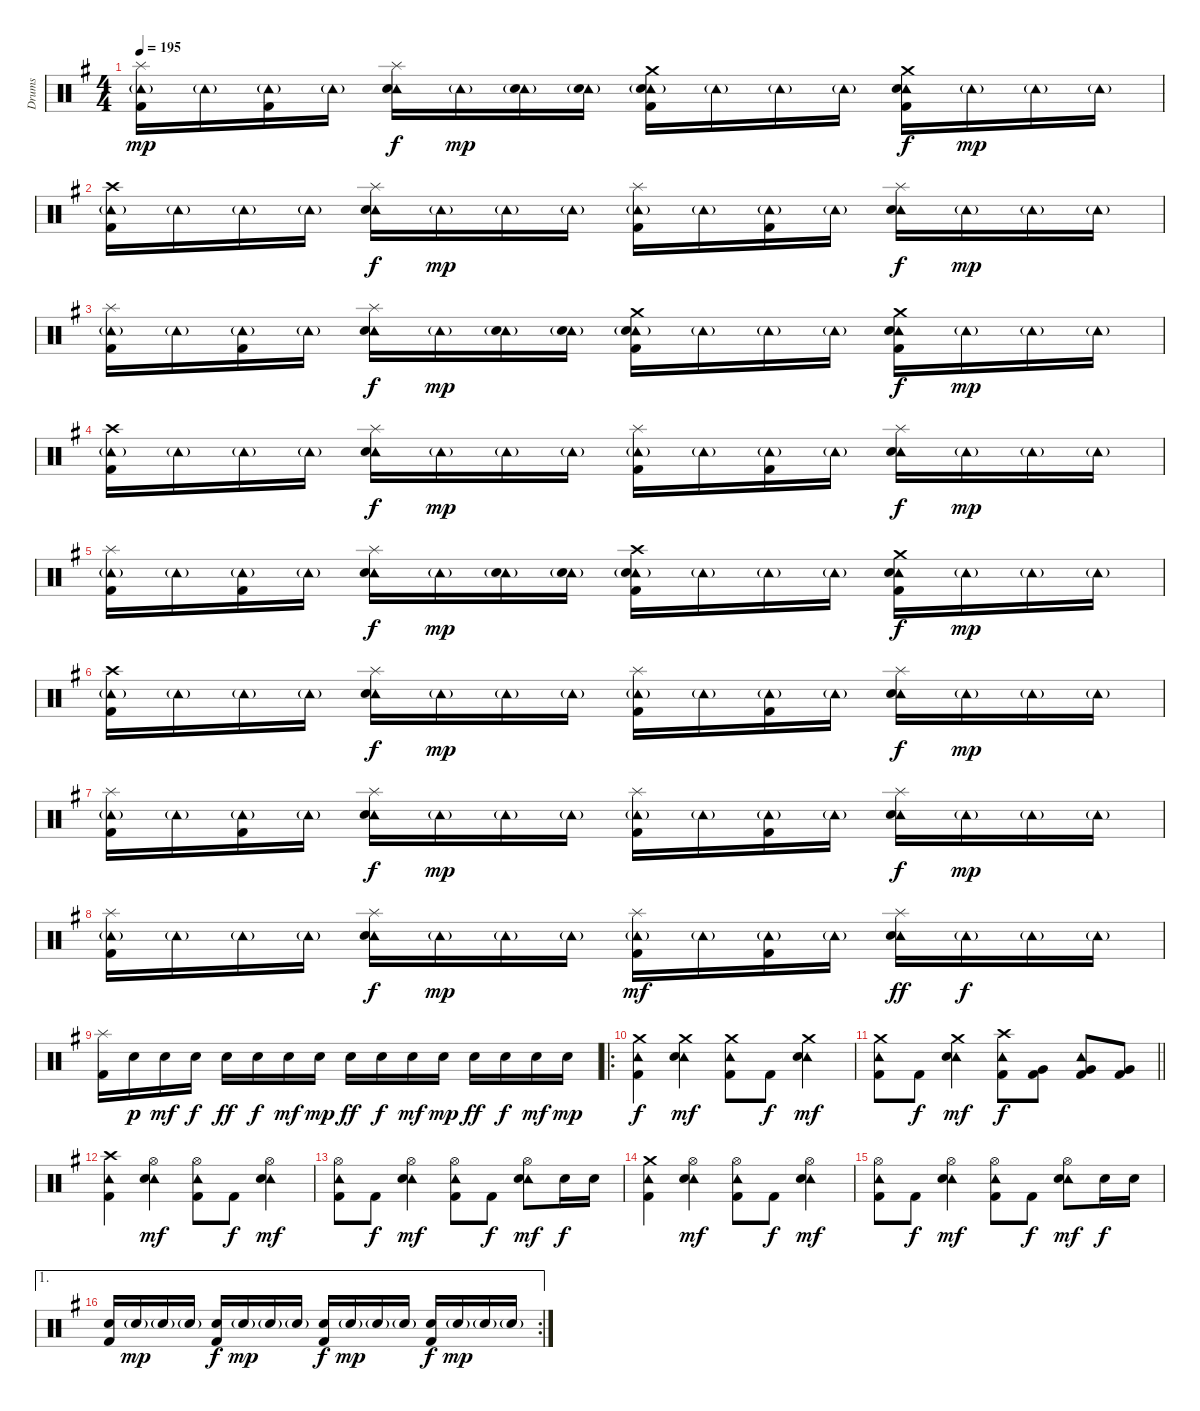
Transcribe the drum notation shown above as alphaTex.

\track ("Drums" "Drums") {instrument percussion}
\staff {score}
\articulation defaults
\ts (4 4)
\tempo 195
\clef neutral
\ks g
("Splash (hit)" "Tambourine (hit)"{g} "Kick (hit) 2").16{dy mp} "Tambourine (hit)"{g}.16 ("Tambourine (hit)"{g} "Kick (hit) 2").16 "Tambourine (hit)"{g}.16 ("Splash (hit)" "Tambourine (hit)" "Electric Snare (hit)").16{dy f} "Tambourine (hit)"{g}.16{dy mp} ("Tambourine (hit)"{g} "Electric Snare (hit)").16 ("Tambourine (hit)"{g} "Electric Snare (hit)").16 ("Crash medium (hit)" "Tambourine (hit)"{g} "Electric Snare (hit)" "Kick (hit) 2").16 "Tambourine (hit)"{g}.16 "Tambourine (hit)"{g}.16 "Tambourine (hit)"{g}.16 ("Crash medium (hit)" "Tambourine (hit)" "Electric Snare (hit)" "Kick (hit) 2").16{dy f} "Tambourine (hit)"{g}.16{dy mp} "Tambourine (hit)"{g}.16 "Tambourine (hit)"{g}.16 |
("Crash high (hit)" "Tambourine (hit)"{g} "Kick (hit) 2").16 "Tambourine (hit)"{g}.16 "Tambourine (hit)"{g}.16 "Tambourine (hit)"{g}.16 ("Splash (hit)" "Tambourine (hit)" "Electric Snare (hit)").16{dy f} "Tambourine (hit)"{g}.16{dy mp} "Tambourine (hit)"{g}.16 "Tambourine (hit)"{g}.16 ("Splash (hit)" "Tambourine (hit)"{g} "Kick (hit) 2").16 "Tambourine (hit)"{g}.16 ("Tambourine (hit)"{g} "Kick (hit) 2").16 "Tambourine (hit)"{g}.16 ("Splash (hit)" "Tambourine (hit)" "Electric Snare (hit)").16{dy f} "Tambourine (hit)"{g}.16{dy mp} "Tambourine (hit)"{g}.16 "Tambourine (hit)"{g}.16 |
("Splash (hit)" "Tambourine (hit)"{g} "Kick (hit) 2").16 "Tambourine (hit)"{g}.16 ("Tambourine (hit)"{g} "Kick (hit) 2").16 "Tambourine (hit)"{g}.16 ("Splash (hit)" "Tambourine (hit)" "Electric Snare (hit)").16{dy f} "Tambourine (hit)"{g}.16{dy mp} ("Tambourine (hit)"{g} "Electric Snare (hit)").16 ("Tambourine (hit)"{g} "Electric Snare (hit)").16 ("Crash medium (hit)" "Tambourine (hit)"{g} "Electric Snare (hit)" "Kick (hit) 2").16 "Tambourine (hit)"{g}.16 "Tambourine (hit)"{g}.16 "Tambourine (hit)"{g}.16 ("Crash medium (hit)" "Tambourine (hit)" "Electric Snare (hit)" "Kick (hit) 2").16{dy f} "Tambourine (hit)"{g}.16{dy mp} "Tambourine (hit)"{g}.16 "Tambourine (hit)"{g}.16 |
("Crash high (hit)" "Tambourine (hit)"{g} "Kick (hit) 2").16 "Tambourine (hit)"{g}.16 "Tambourine (hit)"{g}.16 "Tambourine (hit)"{g}.16 ("Splash (hit)" "Tambourine (hit)" "Electric Snare (hit)").16{dy f} "Tambourine (hit)"{g}.16{dy mp} "Tambourine (hit)"{g}.16 "Tambourine (hit)"{g}.16 ("Splash (hit)" "Tambourine (hit)"{g} "Kick (hit) 2").16 "Tambourine (hit)"{g}.16 ("Tambourine (hit)"{g} "Kick (hit) 2").16 "Tambourine (hit)"{g}.16 ("Splash (hit)" "Tambourine (hit)" "Electric Snare (hit)").16{dy f} "Tambourine (hit)"{g}.16{dy mp} "Tambourine (hit)"{g}.16 "Tambourine (hit)"{g}.16 |
("Splash (hit)" "Tambourine (hit)"{g} "Kick (hit) 2").16 "Tambourine (hit)"{g}.16 ("Tambourine (hit)"{g} "Kick (hit) 2").16 "Tambourine (hit)"{g}.16 ("Splash (hit)" "Tambourine (hit)" "Electric Snare (hit)").16{dy f} "Tambourine (hit)"{g}.16{dy mp} ("Tambourine (hit)"{g} "Electric Snare (hit)").16 ("Tambourine (hit)"{g} "Electric Snare (hit)").16 ("Crash high (hit)" "Tambourine (hit)"{g} "Electric Snare (hit)" "Kick (hit) 2").16 "Tambourine (hit)"{g}.16 "Tambourine (hit)"{g}.16 "Tambourine (hit)"{g}.16 ("Crash medium (hit)" "Tambourine (hit)" "Electric Snare (hit)" "Kick (hit) 2").16{dy f} "Tambourine (hit)"{g}.16{dy mp} "Tambourine (hit)"{g}.16 "Tambourine (hit)"{g}.16 |
("Crash high (hit)" "Tambourine (hit)"{g} "Kick (hit) 2").16 "Tambourine (hit)"{g}.16 "Tambourine (hit)"{g}.16 "Tambourine (hit)"{g}.16 ("Splash (hit)" "Tambourine (hit)" "Electric Snare (hit)").16{dy f} "Tambourine (hit)"{g}.16{dy mp} "Tambourine (hit)"{g}.16 "Tambourine (hit)"{g}.16 ("Splash (hit)" "Tambourine (hit)"{g} "Kick (hit) 2").16 "Tambourine (hit)"{g}.16 ("Tambourine (hit)"{g} "Kick (hit) 2").16 "Tambourine (hit)"{g}.16 ("Splash (hit)" "Tambourine (hit)" "Electric Snare (hit)").16{dy f} "Tambourine (hit)"{g}.16{dy mp} "Tambourine (hit)"{g}.16 "Tambourine (hit)"{g}.16 |
("Splash (hit)" "Tambourine (hit)"{g} "Kick (hit) 2").16 "Tambourine (hit)"{g}.16 ("Tambourine (hit)"{g} "Kick (hit) 2").16 "Tambourine (hit)"{g}.16 ("Splash (hit)" "Tambourine (hit)" "Electric Snare (hit)").16{dy f} "Tambourine (hit)"{g}.16{dy mp} "Tambourine (hit)"{g}.16 "Tambourine (hit)"{g}.16 ("Splash (hit)" "Tambourine (hit)"{g} "Kick (hit) 2").16 "Tambourine (hit)"{g}.16 ("Tambourine (hit)"{g} "Kick (hit) 2").16 "Tambourine (hit)"{g}.16 ("Splash (hit)" "Tambourine (hit)" "Electric Snare (hit)").16{dy f} "Tambourine (hit)"{g}.16{dy mp} "Tambourine (hit)"{g}.16 "Tambourine (hit)"{g}.16 |
("Splash (hit)" "Tambourine (hit)"{g} "Kick (hit) 2").16 "Tambourine (hit)"{g}.16 "Tambourine (hit)"{g}.16 "Tambourine (hit)"{g}.16 ("Splash (hit)" "Tambourine (hit)" "Electric Snare (hit)").16{dy f} "Tambourine (hit)"{g}.16{dy mp} "Tambourine (hit)"{g}.16 "Tambourine (hit)"{g}.16 ("Splash (hit)" "Tambourine (hit)"{g} "Kick (hit) 2").16{dy mf} "Tambourine (hit)"{g}.16 ("Tambourine (hit)"{g} "Kick (hit) 2").16 "Tambourine (hit)"{g}.16 ("Splash (hit)" "Tambourine (hit)" "Electric Snare (hit)").16{dy ff} "Tambourine (hit)"{g}.16{dy f} "Tambourine (hit)"{g}.16 "Tambourine (hit)"{g}.16 |
("Splash (hit)" "Kick (hit) 2").16 "Electric Snare (hit)".16{dy p} "Electric Snare (hit)".16{dy mf} "Electric Snare (hit)".16{dy f} "Electric Snare (hit)".16{dy ff} "Electric Snare (hit)".16{dy f} "Electric Snare (hit)".16{dy mf} "Electric Snare (hit)".16{dy mp} "Electric Snare (hit)".16{dy ff} "Electric Snare (hit)".16{dy f} "Electric Snare (hit)".16{dy mf} "Electric Snare (hit)".16{dy mp} "Electric Snare (hit)".16{dy ff} "Electric Snare (hit)".16{dy f} "Electric Snare (hit)".16{dy mf} "Electric Snare (hit)".16{dy mp} |
\ro
("Crash medium (hit)" "Tambourine (hit)" "Kick (hit) 2").4{dy f} ("Crash medium (hit)" "Tambourine (hit)" "Electric Snare (hit)").4{dy mf} ("Crash medium (hit)" "Tambourine (hit)" "Kick (hit) 2").8 "Kick (hit) 2".8{dy f} ("Crash medium (hit)" "Tambourine (hit)" "Electric Snare (hit)").4{dy mf} |
\barLineRight lightlight
("Crash medium (hit)" "Tambourine (hit)" "Kick (hit) 2").8 "Kick (hit) 2".8{dy f} ("Crash medium (hit)" "Tambourine (hit)" "Electric Snare (hit)").4{dy mf} ("Crash high (hit)" "Tambourine (hit)" "Kick (hit) 2").8{dy f} ("Very Low Tom (hit)" "Kick (hit) 2").8 ("Tambourine (hit)" "Very Low Tom (hit)" "Kick (hit) 2").8 ("Very Low Tom (hit)" "Kick (hit) 2").8 |
("Crash high (hit)" "Tambourine (hit)" "Kick (hit) 2").4 ("Hi-Hat (open)" "Tambourine (hit)" "Electric Snare (hit)").4{dy mf} ("Hi-Hat (open)" "Tambourine (hit)" "Kick (hit) 2").8 "Kick (hit) 2".8{dy f} ("Hi-Hat (open)" "Tambourine (hit)" "Electric Snare (hit)").4{dy mf} |
("Hi-Hat (open)" "Tambourine (hit)" "Kick (hit) 2").8 "Kick (hit) 2".8{dy f} ("Hi-Hat (open)" "Tambourine (hit)" "Electric Snare (hit)").4{dy mf} ("Hi-Hat (open)" "Tambourine (hit)" "Kick (hit) 2").8 "Kick (hit) 2".8{dy f} ("Hi-Hat (open)" "Tambourine (hit)" "Electric Snare (hit)").8{dy mf} "Electric Snare (hit)".16{dy f} "Electric Snare (hit)".16 |
("Crash medium (hit)" "Tambourine (hit)" "Kick (hit) 2").4 ("Hi-Hat (open)" "Tambourine (hit)" "Electric Snare (hit)").4{dy mf} ("Hi-Hat (open)" "Tambourine (hit)" "Kick (hit) 2").8 "Kick (hit) 2".8{dy f} ("Hi-Hat (open)" "Tambourine (hit)" "Electric Snare (hit)").4{dy mf} |
("Hi-Hat (open)" "Tambourine (hit)" "Kick (hit) 2").8 "Kick (hit) 2".8{dy f} ("Hi-Hat (open)" "Tambourine (hit)" "Electric Snare (hit)").4{dy mf} ("Hi-Hat (open)" "Tambourine (hit)" "Kick (hit) 2").8 "Kick (hit) 2".8{dy f} ("Hi-Hat (open)" "Tambourine (hit)" "Electric Snare (hit)").8{dy mf} "Electric Snare (hit)".16{dy f} "Electric Snare (hit)".16 |
\ae 1
\rc 2
("Electric Snare (hit)" "Kick (hit) 2").16 "Electric Snare (hit)"{g}.16{dy mp} "Electric Snare (hit)"{g}.16 "Electric Snare (hit)"{g}.16 ("Electric Snare (hit)" "Kick (hit) 2").16{dy f} "Electric Snare (hit)"{g}.16{dy mp} "Electric Snare (hit)"{g}.16 "Electric Snare (hit)"{g}.16 ("Electric Snare (hit)" "Kick (hit) 2").16{dy f} "Electric Snare (hit)"{g}.16{dy mp} "Electric Snare (hit)"{g}.16 "Electric Snare (hit)"{g}.16 ("Electric Snare (hit)" "Kick (hit) 2").16{dy f} "Electric Snare (hit)"{g}.16{dy mp} "Electric Snare (hit)"{g}.16 "Electric Snare (hit)"{g}.16
